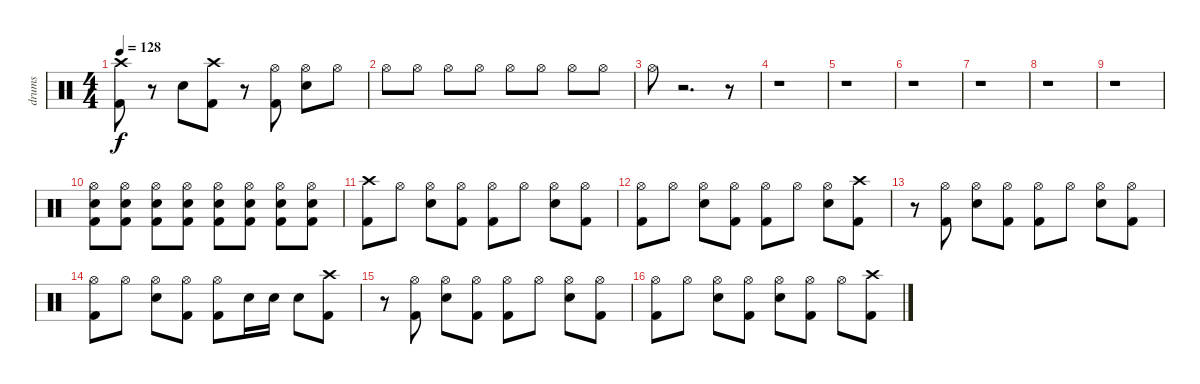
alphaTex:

\track ("drums" "drums") {instrument percussion}
\staff {score}
\articulation defaults
\ts (4 4)
\tempo 128
\clef neutral
\ks c
("Kick (hit) 2" "Crash high (hit)").8{dy f} r.8 "Snare (hit) 2".8 ("Kick (hit) 2" "Crash high (hit)").8 r.8 ("Kick (hit) 2" "Hi-Hat (open)").8 ("Snare (hit) 2" "Hi-Hat (open)").8 "Hi-Hat (open)".8 |
"Hi-Hat (open)".8 "Hi-Hat (open)".8 "Hi-Hat (open)".8 "Hi-Hat (open)".8 "Hi-Hat (open)".8 "Hi-Hat (open)".8 "Hi-Hat (open)".8 "Hi-Hat (open)".8 |
"Hi-Hat (open)".8 r.2{d} r.8 |
r.1 |
r.1 |
r.1 |
r.1 |
r.1 |
r.1 |
("Snare (hit) 2" "Kick (hit) 2" "Hi-Hat (open)").8 ("Kick (hit) 2" "Snare (hit) 2" "Hi-Hat (open)").8 ("Kick (hit) 2" "Snare (hit) 2" "Hi-Hat (open)").8 ("Snare (hit) 2" "Kick (hit) 2" "Hi-Hat (open)").8 ("Snare (hit) 2" "Kick (hit) 2" "Hi-Hat (open)").8 ("Snare (hit) 2" "Kick (hit) 2" "Hi-Hat (open)").8 ("Snare (hit) 2" "Kick (hit) 2" "Hi-Hat (open)").8 ("Snare (hit) 2" "Kick (hit) 2" "Hi-Hat (open)").8 |
("Kick (hit) 2" "Crash high (hit)").8 "Hi-Hat (open)".8 ("Snare (hit) 2" "Hi-Hat (open)").8 ("Kick (hit) 2" "Hi-Hat (open)").8 ("Kick (hit) 2" "Hi-Hat (open)").8 "Hi-Hat (open)".8 ("Snare (hit) 2" "Hi-Hat (open)").8 ("Kick (hit) 2" "Hi-Hat (open)").8 |
("Kick (hit) 2" "Hi-Hat (open)").8 "Hi-Hat (open)".8 ("Snare (hit) 2" "Hi-Hat (open)").8 ("Kick (hit) 2" "Hi-Hat (open)").8 ("Kick (hit) 2" "Hi-Hat (open)").8 "Hi-Hat (open)".8 ("Snare (hit) 2" "Hi-Hat (open)").8 ("Kick (hit) 2" "Crash high (hit)").8 |
r.8 ("Kick (hit) 2" "Hi-Hat (open)").8 ("Snare (hit) 2" "Hi-Hat (open)").8 ("Kick (hit) 2" "Hi-Hat (open)").8 ("Kick (hit) 2" "Hi-Hat (open)").8 "Hi-Hat (open)".8 ("Snare (hit) 2" "Hi-Hat (open)").8 ("Kick (hit) 2" "Hi-Hat (open)").8 |
("Kick (hit) 2" "Hi-Hat (open)").8 "Hi-Hat (open)".8 ("Snare (hit) 2" "Hi-Hat (open)").8 ("Kick (hit) 2" "Hi-Hat (open)").8 ("Kick (hit) 2" "Hi-Hat (open)").8 "Snare (hit) 2".16 "Snare (hit) 2".16 "Snare (hit) 2".8 ("Kick (hit) 2" "Crash high (hit)").8 |
r.8 ("Kick (hit) 2" "Hi-Hat (open)").8 ("Snare (hit) 2" "Hi-Hat (open)").8 ("Kick (hit) 2" "Hi-Hat (open)").8 ("Kick (hit) 2" "Hi-Hat (open)").8 "Hi-Hat (open)".8 ("Snare (hit) 2" "Hi-Hat (open)").8 ("Kick (hit) 2" "Hi-Hat (open)").8 |
("Kick (hit) 2" "Hi-Hat (open)").8 "Hi-Hat (open)".8 ("Snare (hit) 2" "Hi-Hat (open)").8 ("Kick (hit) 2" "Hi-Hat (open)").8 ("Snare (hit) 2" "Hi-Hat (open)").8 ("Kick (hit) 2" "Hi-Hat (open)").8 "Hi-Hat (open)".8 ("Crash high (hit)" "Kick (hit) 2").8
